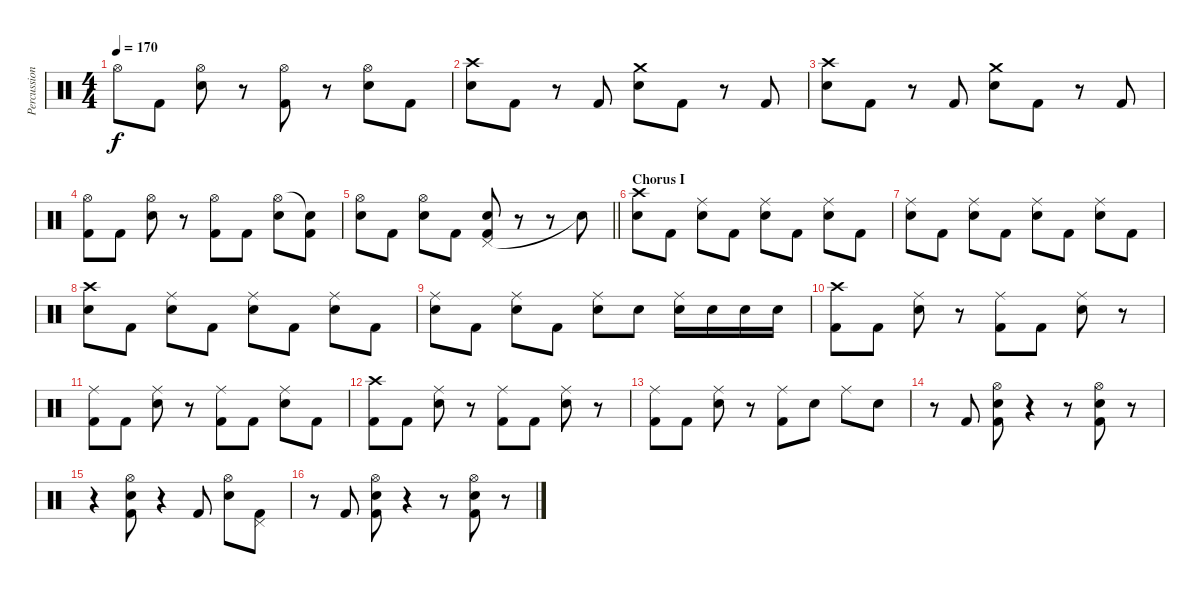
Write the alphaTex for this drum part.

\track ("Percussion" "Percussion") {instrument percussion}
\staff {score}
\articulation defaults
\ts (4 4)
\tempo 170
\clef neutral
\ks c "Hi-Hat (open)".8{dy f} "Kick (hit) 2".8
("Hi-Hat (open)" "Electric Snare (hit)").8 r.8 ("Hi-Hat (open)" "Kick (hit) 2").8 r.8 ("Hi-Hat (open)" "Electric Snare (hit)").8 "Kick (hit) 2".8 |
("Crash high (hit)" "Electric Snare (hit)").8 "Kick (hit) 2".8 r.8 "Kick (hit) 2".8 ("Crash medium (hit)" "Electric Snare (hit)").8 "Kick (hit) 2".8 r.8 "Kick (hit) 2".8 |
("Crash high (hit)" "Electric Snare (hit)").8 "Kick (hit) 2".8 r.8 "Kick (hit) 2".8 ("Crash medium (hit)" "Electric Snare (hit)").8 "Kick (hit) 2".8 r.8 "Kick (hit) 2".8 |
("Hi-Hat (open)" "Kick (hit) 2").8 "Kick (hit) 2".8 ("Hi-Hat (open)" "Electric Snare (hit)").8 r.8 ("Hi-Hat (open)" "Kick (hit) 2").8 "Kick (hit) 2".8 ("Hi-Hat (open)" "Electric Snare (hit)").8 ("Snare (hit)"{t} "Kick (hit) 2").8 |
\barLineRight lightlight
("Hi-Hat (open)" "Electric Snare (hit)").8 "Kick (hit) 2".8 ("Hi-Hat (open)" "Electric Snare (hit)").8 "Kick (hit) 2".8 ("Pedal Hi-Hat (hit)" "Electric Snare (hit)" "Kick (hit) 2").8 r.8 r.8 "Snare (hit)"{t}.8 |
\section ("" "Chorus I")
("Crash high (hit)" "Electric Snare (hit)").8 "Kick (hit) 2".8 ("Ride (middle)" "Electric Snare (hit)").8 "Kick (hit) 2".8 ("Ride (middle)" "Electric Snare (hit)").8 "Kick (hit) 2".8 ("Ride (middle)" "Electric Snare (hit)").8 "Kick (hit) 2".8 |
("Ride (middle)" "Electric Snare (hit)").8 "Kick (hit) 2".8 ("Ride (middle)" "Electric Snare (hit)").8 "Kick (hit) 2".8 ("Ride (middle)" "Electric Snare (hit)").8 "Kick (hit) 2".8 ("Ride (middle)" "Electric Snare (hit)").8 "Kick (hit) 2".8 |
("Crash high (hit)" "Electric Snare (hit)").8 "Kick (hit) 2".8 ("Ride (middle)" "Electric Snare (hit)").8 "Kick (hit) 2".8 ("Ride (middle)" "Electric Snare (hit)").8 "Kick (hit) 2".8 ("Ride (middle)" "Electric Snare (hit)").8 "Kick (hit) 2".8 |
("Ride (middle)" "Electric Snare (hit)").8 "Kick (hit) 2".8 ("Ride (middle)" "Electric Snare (hit)").8 "Kick (hit) 2".8 ("Ride (middle)" "Electric Snare (hit)").8 "Electric Snare (hit)".8 ("Ride (middle)" "Electric Snare (hit)").16 "Electric Snare (hit)".16 "Electric Snare (hit)".16 "Electric Snare (hit)".16 |
("Crash high (hit)" "Kick (hit) 2").8 "Kick (hit) 2".8 ("Ride (middle)" "Electric Snare (hit)").8 r.8 ("Ride (middle)" "Kick (hit) 2").8 "Kick (hit) 2".8 ("Ride (middle)" "Electric Snare (hit)").8 r.8 |
("Ride (middle)" "Kick (hit) 2").8 "Kick (hit) 2".8 ("Ride (middle)" "Electric Snare (hit)").8 r.8 ("Ride (middle)" "Kick (hit) 2").8 "Kick (hit) 2".8 ("Ride (middle)" "Electric Snare (hit)").8 "Kick (hit) 2".8 |
("Crash high (hit)" "Kick (hit) 2").8 "Kick (hit) 2".8 ("Ride (middle)" "Electric Snare (hit)").8 r.8 ("Ride (middle)" "Kick (hit) 2").8 "Kick (hit) 2".8 ("Ride (middle)" "Electric Snare (hit)").8 r.8 |
("Ride (middle)" "Kick (hit) 2").8 "Kick (hit) 2".8 ("Ride (middle)" "Electric Snare (hit)").8 r.8 ("Ride (middle)" "Kick (hit) 2").8 "Electric Snare (hit)".8 "Ride (middle)".8 "Electric Snare (hit)".8 |
r.8 "Kick (hit) 2".8 ("Hi-Hat (open)" "Electric Snare (hit)" "Kick (hit) 2").8 r.4 r.8 ("Hi-Hat (open)" "Electric Snare (hit)" "Kick (hit) 2").8 r.8 |
r.4 ("Hi-Hat (open)" "Electric Snare (hit)" "Kick (hit) 2").8 r.4 "Kick (hit) 2".8 ("Hi-Hat (open)" "Electric Snare (hit)").8 ("Pedal Hi-Hat (hit)" "Kick (hit) 2").8 |
r.8 "Kick (hit) 2".8 ("Hi-Hat (open)" "Electric Snare (hit)" "Kick (hit) 2").8 r.4 r.8 ("Hi-Hat (open)" "Electric Snare (hit)" "Kick (hit) 2").8 r.8
